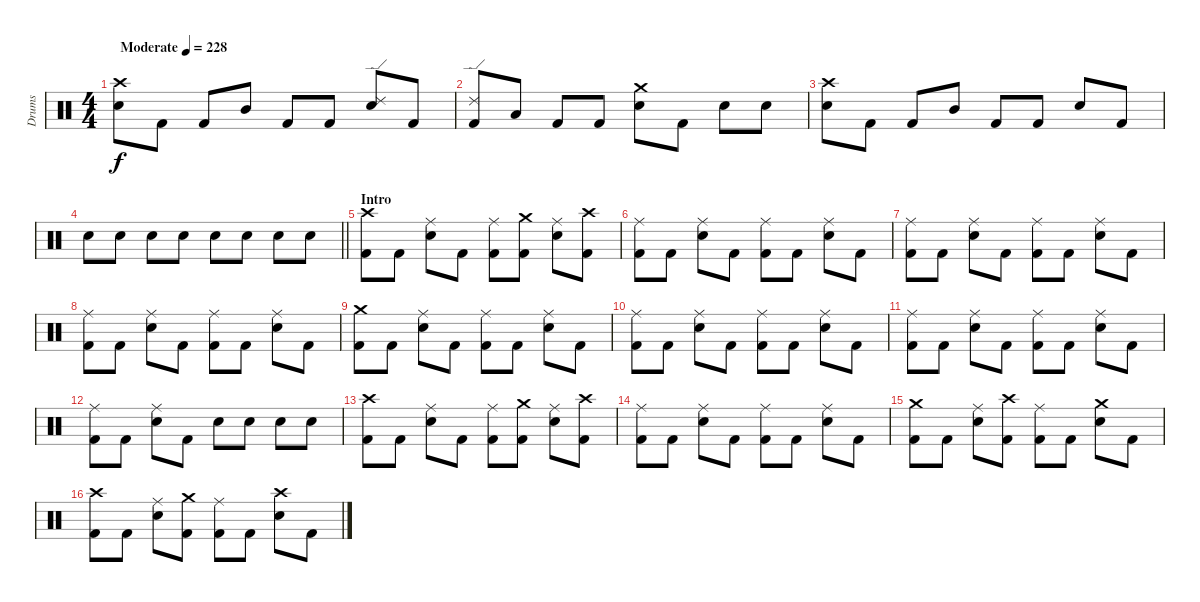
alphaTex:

\track ("Drums" "Drums") {instrument percussion}
\staff {score}
\articulation defaults
\ts (4 4)
\tempo (228 "Moderate")
\clef neutral
\ks c
("Crash high (hit)" "Snare (hit) 2").8{dy f} "Kick (hit) 2".8 "Kick (hit) 2".8 "Mid Tom (hit)".8 "Kick (hit) 2".8 "Kick (hit) 2".8 ("Ride (edge) 2" "Snare (hit) 2").8 "Kick (hit) 2".8 |
("Ride (edge) 2" "Kick (hit) 2").8 "Low Tom (hit)".8 "Kick (hit) 2".8 "Kick (hit) 2".8 ("Crash medium (hit)" "Snare (hit) 2").8 "Kick (hit) 2".8 "Snare (hit) 2".8 "Snare (hit) 2".8 |
("Crash high (hit)" "Snare (hit) 2").8 "Kick (hit) 2".8 "Kick (hit) 2".8 "Mid Tom (hit)".8 "Kick (hit) 2".8 "Kick (hit) 2".8 "Snare (hit) 2".8 "Kick (hit) 2".8 |
\barLineRight lightlight "Snare (hit) 2".8 "Snare (hit) 2".8 "Snare (hit) 2".8 "Snare (hit) 2".8 "Snare (hit) 2".8 "Snare (hit) 2".8 "Snare (hit) 2".8 "Snare (hit) 2".8
|
\section ("" "Intro")
("Crash high (hit)" "Kick (hit) 2").8 "Kick (hit) 2".8 ("Ride (middle)" "Snare (hit) 2").8 "Kick (hit) 2".8 ("Ride (middle)" "Kick (hit) 2").8 ("Crash medium (hit)" "Kick (hit) 2").8 ("Ride (middle)" "Snare (hit) 2").8 ("Crash high (hit)" "Kick (hit) 2").8 |
("Ride (middle)" "Kick (hit) 2").8 "Kick (hit) 2".8 ("Ride (middle)" "Snare (hit) 2").8 "Kick (hit) 2".8 ("Ride (middle)" "Kick (hit) 2").8 "Kick (hit) 2".8 ("Ride (middle)" "Snare (hit) 2").8 "Kick (hit) 2".8 |
("Ride (middle)" "Kick (hit) 2").8 "Kick (hit) 2".8 ("Ride (middle)" "Snare (hit) 2").8 "Kick (hit) 2".8 ("Ride (middle)" "Kick (hit) 2").8 "Kick (hit) 2".8 ("Ride (middle)" "Snare (hit) 2").8 "Kick (hit) 2".8 |
("Ride (middle)" "Kick (hit) 2").8 "Kick (hit) 2".8 ("Ride (middle)" "Snare (hit) 2").8 "Kick (hit) 2".8 ("Ride (middle)" "Kick (hit) 2").8 "Kick (hit) 2".8 ("Ride (middle)" "Snare (hit) 2").8 "Kick (hit) 2".8 |
("Crash medium (hit)" "Kick (hit) 2").8 "Kick (hit) 2".8 ("Ride (middle)" "Snare (hit) 2").8 "Kick (hit) 2".8 ("Ride (middle)" "Kick (hit) 2").8 "Kick (hit) 2".8 ("Ride (middle)" "Snare (hit) 2").8 "Kick (hit) 2".8 |
("Ride (middle)" "Kick (hit) 2").8 "Kick (hit) 2".8 ("Ride (middle)" "Snare (hit) 2").8 "Kick (hit) 2".8 ("Ride (middle)" "Kick (hit) 2").8 "Kick (hit) 2".8 ("Ride (middle)" "Snare (hit) 2").8 "Kick (hit) 2".8 |
("Ride (middle)" "Kick (hit) 2").8 "Kick (hit) 2".8 ("Ride (middle)" "Snare (hit) 2").8 "Kick (hit) 2".8 ("Ride (middle)" "Kick (hit) 2").8 "Kick (hit) 2".8 ("Ride (middle)" "Snare (hit) 2").8 "Kick (hit) 2".8 |
("Ride (middle)" "Kick (hit) 2").8 "Kick (hit) 2".8 ("Ride (middle)" "Snare (hit) 2").8 "Kick (hit) 2".8 "Snare (hit) 2".8 "Snare (hit) 2".8 "Snare (hit) 2".8 "Snare (hit) 2".8 |
("Crash high (hit)" "Kick (hit) 2").8 "Kick (hit) 2".8 ("Ride (middle)" "Snare (hit) 2").8 "Kick (hit) 2".8 ("Ride (middle)" "Kick (hit) 2").8 ("Crash medium (hit)" "Kick (hit) 2").8 ("Ride (middle)" "Snare (hit) 2").8 ("Crash high (hit)" "Kick (hit) 2").8 |
("Ride (middle)" "Kick (hit) 2").8 "Kick (hit) 2".8 ("Ride (middle)" "Snare (hit) 2").8 "Kick (hit) 2".8 ("Ride (middle)" "Kick (hit) 2").8 "Kick (hit) 2".8 ("Ride (middle)" "Snare (hit) 2").8 "Kick (hit) 2".8 |
("Crash medium (hit)" "Kick (hit) 2").8 "Kick (hit) 2".8 ("Ride (middle)" "Snare (hit) 2").8 ("Crash high (hit)" "Kick (hit) 2").8 ("Ride (middle)" "Kick (hit) 2").8 "Kick (hit) 2".8 ("Crash medium (hit)" "Snare (hit) 2").8 "Kick (hit) 2".8 |
("Crash high (hit)" "Kick (hit) 2").8 "Kick (hit) 2".8 ("Ride (middle)" "Snare (hit) 2").8 ("Crash medium (hit)" "Kick (hit) 2").8 ("Ride (middle)" "Kick (hit) 2").8 "Kick (hit) 2".8 ("Crash high (hit)" "Snare (hit) 2").8 "Kick (hit) 2".8
